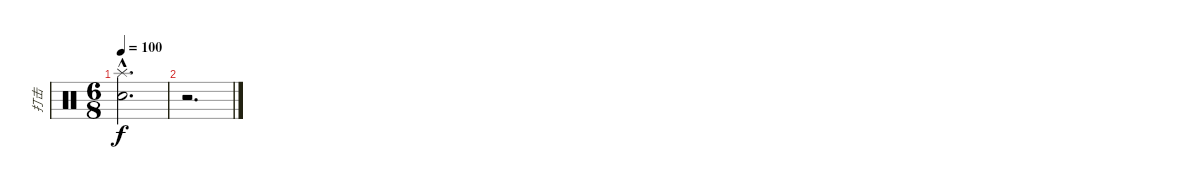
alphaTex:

\track ("打击" "打击") {instrument percussion}
\staff {score}
\articulation defaults
\ts (6 8)
\tempo 100
\clef neutral
\ks c
("Splash (hit)"{hac} "Electric Snare (hit)"{hac}).2{d dy f} |
r.2{d}
